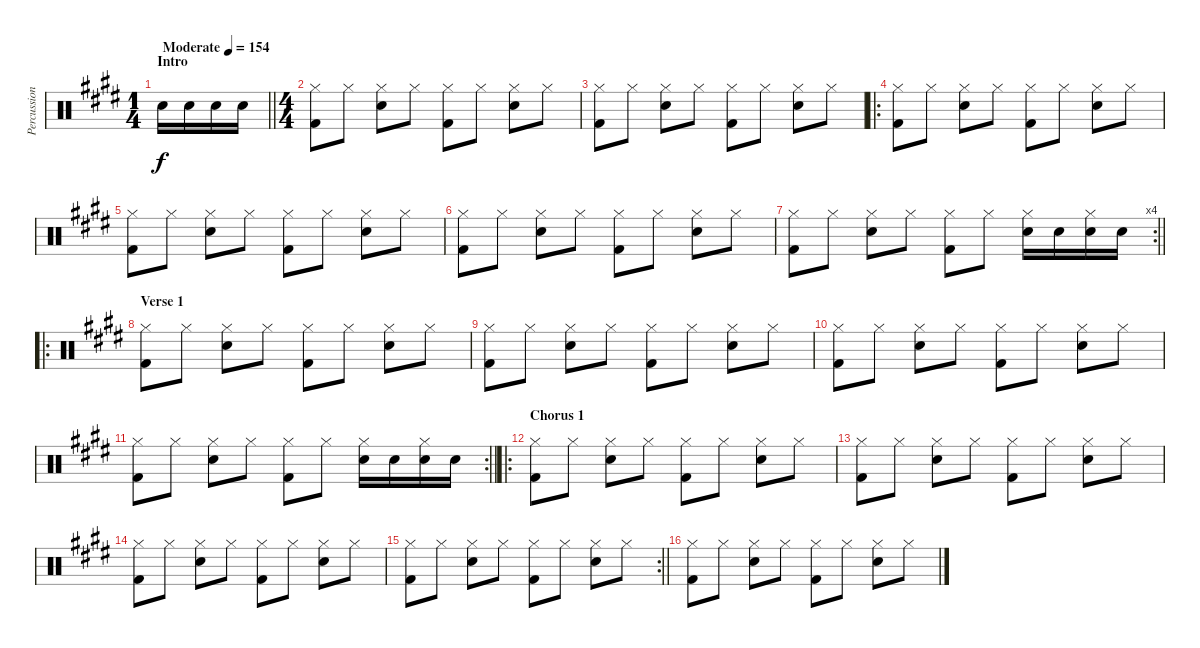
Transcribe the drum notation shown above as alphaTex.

\track ("Percussion" "Percussion") {instrument percussion}
\staff {score}
\articulation defaults
\ts (1 4)
\section ("" "Intro")
\tempo (154 "Moderate")
\clef neutral
\barLineRight lightlight
\ks e "Snare (hit) 2".16{dy f} "Snare (hit) 2".16 "Snare (hit) 2".16 "Snare (hit) 2".16
|
\ts (4 4)
("Hi-Hat (closed)" "Kick (hit) 2").8 "Hi-Hat (closed)".8 ("Hi-Hat (closed)" "Snare (hit) 2").8 "Hi-Hat (closed)".8 ("Hi-Hat (closed)" "Kick (hit) 2").8 "Hi-Hat (closed)".8 ("Hi-Hat (closed)" "Snare (hit) 2").8 "Hi-Hat (closed)".8 |
("Hi-Hat (closed)" "Kick (hit) 2").8 "Hi-Hat (closed)".8 ("Hi-Hat (closed)" "Snare (hit) 2").8 "Hi-Hat (closed)".8 ("Hi-Hat (closed)" "Kick (hit) 2").8 "Hi-Hat (closed)".8 ("Hi-Hat (closed)" "Snare (hit) 2").8 "Hi-Hat (closed)".8 |
\ro
("Hi-Hat (closed)" "Kick (hit) 2").8 "Hi-Hat (closed)".8 ("Hi-Hat (closed)" "Snare (hit) 2").8 "Hi-Hat (closed)".8 ("Hi-Hat (closed)" "Kick (hit) 2").8 "Hi-Hat (closed)".8 ("Hi-Hat (closed)" "Snare (hit) 2").8 "Hi-Hat (closed)".8 |
("Hi-Hat (closed)" "Kick (hit) 2").8 "Hi-Hat (closed)".8 ("Hi-Hat (closed)" "Snare (hit) 2").8 "Hi-Hat (closed)".8 ("Hi-Hat (closed)" "Kick (hit) 2").8 "Hi-Hat (closed)".8 ("Hi-Hat (closed)" "Snare (hit) 2").8 "Hi-Hat (closed)".8 |
("Hi-Hat (closed)" "Kick (hit) 2").8 "Hi-Hat (closed)".8 ("Hi-Hat (closed)" "Snare (hit) 2").8 "Hi-Hat (closed)".8 ("Hi-Hat (closed)" "Kick (hit) 2").8 "Hi-Hat (closed)".8 ("Hi-Hat (closed)" "Snare (hit) 2").8 "Hi-Hat (closed)".8 |
\rc 4
\barLineRight lightlight
("Hi-Hat (closed)" "Kick (hit) 2").8 "Hi-Hat (closed)".8 ("Hi-Hat (closed)" "Snare (hit) 2").8 "Hi-Hat (closed)".8 ("Hi-Hat (closed)" "Kick (hit) 2").8 "Hi-Hat (closed)".8 ("Hi-Hat (closed)" "Snare (hit) 2").16 "Snare (hit) 2".16 ("Hi-Hat (closed)" "Snare (hit) 2").16 "Snare (hit) 2".16 |
\ro
\section ("" "Verse 1")
("Hi-Hat (closed)" "Kick (hit) 2").8 "Hi-Hat (closed)".8 ("Hi-Hat (closed)" "Snare (hit) 2").8 "Hi-Hat (closed)".8 ("Hi-Hat (closed)" "Kick (hit) 2").8 "Hi-Hat (closed)".8 ("Hi-Hat (closed)" "Snare (hit) 2").8 "Hi-Hat (closed)".8 |
("Hi-Hat (closed)" "Kick (hit) 2").8 "Hi-Hat (closed)".8 ("Hi-Hat (closed)" "Snare (hit) 2").8 "Hi-Hat (closed)".8 ("Hi-Hat (closed)" "Kick (hit) 2").8 "Hi-Hat (closed)".8 ("Hi-Hat (closed)" "Snare (hit) 2").8 "Hi-Hat (closed)".8 |
("Hi-Hat (closed)" "Kick (hit) 2").8 "Hi-Hat (closed)".8 ("Hi-Hat (closed)" "Snare (hit) 2").8 "Hi-Hat (closed)".8 ("Hi-Hat (closed)" "Kick (hit) 2").8 "Hi-Hat (closed)".8 ("Hi-Hat (closed)" "Snare (hit) 2").8 "Hi-Hat (closed)".8 |
\rc 2
\barLineRight lightlight
("Hi-Hat (closed)" "Kick (hit) 2").8 "Hi-Hat (closed)".8 ("Hi-Hat (closed)" "Snare (hit) 2").8 "Hi-Hat (closed)".8 ("Hi-Hat (closed)" "Kick (hit) 2").8 "Hi-Hat (closed)".8 ("Hi-Hat (closed)" "Snare (hit) 2").16 "Snare (hit) 2".16 ("Hi-Hat (closed)" "Snare (hit) 2").16 "Snare (hit) 2".16 |
\ro
\section ("" "Chorus 1")
("Hi-Hat (closed)" "Kick (hit) 2").8 "Hi-Hat (closed)".8 ("Hi-Hat (closed)" "Snare (hit) 2").8 "Hi-Hat (closed)".8 ("Hi-Hat (closed)" "Kick (hit) 2").8 "Hi-Hat (closed)".8 ("Hi-Hat (closed)" "Snare (hit) 2").8 "Hi-Hat (closed)".8 |
("Hi-Hat (closed)" "Kick (hit) 2").8 "Hi-Hat (closed)".8 ("Hi-Hat (closed)" "Snare (hit) 2").8 "Hi-Hat (closed)".8 ("Hi-Hat (closed)" "Kick (hit) 2").8 "Hi-Hat (closed)".8 ("Hi-Hat (closed)" "Snare (hit) 2").8 "Hi-Hat (closed)".8 |
("Hi-Hat (closed)" "Kick (hit) 2").8 "Hi-Hat (closed)".8 ("Hi-Hat (closed)" "Snare (hit) 2").8 "Hi-Hat (closed)".8 ("Hi-Hat (closed)" "Kick (hit) 2").8 "Hi-Hat (closed)".8 ("Hi-Hat (closed)" "Snare (hit) 2").8 "Hi-Hat (closed)".8 |
\rc 2
\barLineRight lightlight
("Hi-Hat (closed)" "Kick (hit) 2").8 "Hi-Hat (closed)".8 ("Hi-Hat (closed)" "Snare (hit) 2").8 "Hi-Hat (closed)".8 ("Hi-Hat (closed)" "Kick (hit) 2").8 "Hi-Hat (closed)".8 ("Hi-Hat (closed)" "Snare (hit) 2").8 "Hi-Hat (closed)".8 |
("Hi-Hat (closed)" "Kick (hit) 2").8 "Hi-Hat (closed)".8 ("Hi-Hat (closed)" "Snare (hit) 2").8 "Hi-Hat (closed)".8 ("Hi-Hat (closed)" "Kick (hit) 2").8 "Hi-Hat (closed)".8 ("Hi-Hat (closed)" "Snare (hit) 2").8 "Hi-Hat (closed)".8
